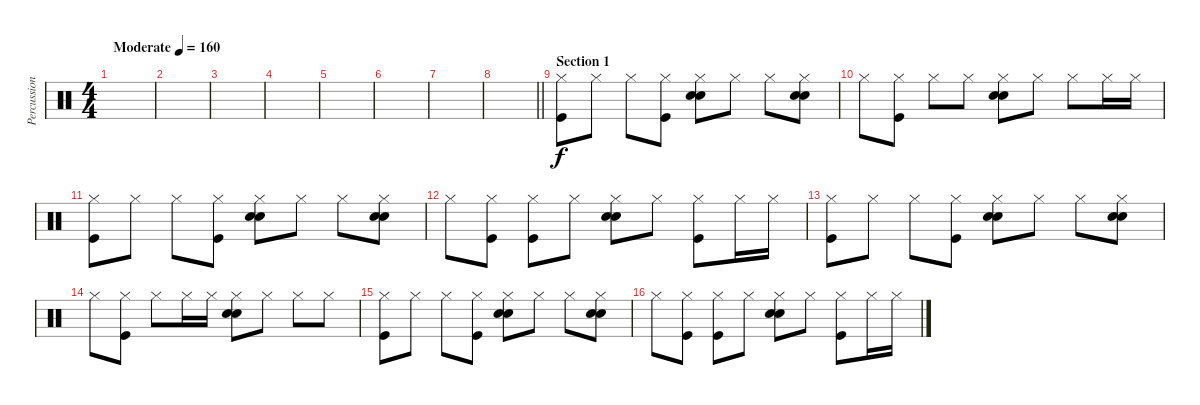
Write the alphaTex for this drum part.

\track ("Percussion" "Percussion") {instrument percussion}
\staff {score}
\articulation defaults
\ts (4 4)
\tempo (160 "Moderate")
\clef neutral
\ks c
|
|
|
|
|
|
|
\barLineRight lightlight
|
\section ("" "Section 1")
("Hi-Hat (closed)" "Kick (hit)").8 "Hi-Hat (closed)".8 "Hi-Hat (closed)".8 ("Hi-Hat (closed)" "Kick (hit)").8 ("Hi-Hat (closed)" "Electric Snare (hit)" "Hand Clap (hit)").8 "Hi-Hat (closed)".8 "Hi-Hat (closed)".8 ("Hi-Hat (closed)" "Electric Snare (hit)" "Hand Clap (hit)").8 |
"Hi-Hat (closed)".8 ("Hi-Hat (closed)" "Kick (hit)").8 "Hi-Hat (closed)".8 "Hi-Hat (closed)".8 ("Hi-Hat (closed)" "Electric Snare (hit)" "Hand Clap (hit)").8 "Hi-Hat (closed)".8 "Hi-Hat (closed)".8 "Hi-Hat (closed)".16 "Hi-Hat (closed)".16 |
("Hi-Hat (closed)" "Kick (hit)").8 "Hi-Hat (closed)".8 "Hi-Hat (closed)".8 ("Hi-Hat (closed)" "Kick (hit)").8 ("Hi-Hat (closed)" "Electric Snare (hit)" "Hand Clap (hit)").8 "Hi-Hat (closed)".8 "Hi-Hat (closed)".8 ("Hi-Hat (closed)" "Electric Snare (hit)" "Hand Clap (hit)").8 |
"Hi-Hat (closed)".8 ("Hi-Hat (closed)" "Kick (hit)").8 ("Hi-Hat (closed)" "Kick (hit)").8 "Hi-Hat (closed)".8 ("Hi-Hat (closed)" "Electric Snare (hit)" "Hand Clap (hit)").8 "Hi-Hat (closed)".8 ("Hi-Hat (closed)" "Kick (hit)").8 "Hi-Hat (closed)".16 "Hi-Hat (closed)".16 |
("Hi-Hat (closed)" "Kick (hit)").8 "Hi-Hat (closed)".8 "Hi-Hat (closed)".8 ("Hi-Hat (closed)" "Kick (hit)").8 ("Hi-Hat (closed)" "Electric Snare (hit)" "Hand Clap (hit)").8 "Hi-Hat (closed)".8 "Hi-Hat (closed)".8 ("Hi-Hat (closed)" "Electric Snare (hit)" "Hand Clap (hit)").8 |
"Hi-Hat (closed)".8 ("Hi-Hat (closed)" "Kick (hit)").8 "Hi-Hat (closed)".8 "Hi-Hat (closed)".16 "Hi-Hat (closed)".16 ("Hi-Hat (closed)" "Electric Snare (hit)" "Hand Clap (hit)").8 "Hi-Hat (closed)".8 "Hi-Hat (closed)".8 "Hi-Hat (closed)".8 |
("Hi-Hat (closed)" "Kick (hit)").8 "Hi-Hat (closed)".8 "Hi-Hat (closed)".8 ("Hi-Hat (closed)" "Kick (hit)").8 ("Hi-Hat (closed)" "Electric Snare (hit)" "Hand Clap (hit)").8 "Hi-Hat (closed)".8 "Hi-Hat (closed)".8 ("Hi-Hat (closed)" "Electric Snare (hit)" "Hand Clap (hit)").8 |
"Hi-Hat (closed)".8 ("Hi-Hat (closed)" "Kick (hit)").8 ("Hi-Hat (closed)" "Kick (hit)").8 "Hi-Hat (closed)".8 ("Hi-Hat (closed)" "Electric Snare (hit)" "Hand Clap (hit)").8 "Hi-Hat (closed)".8 ("Hi-Hat (closed)" "Kick (hit)").8 "Hi-Hat (closed)".16 "Hi-Hat (closed)".16
